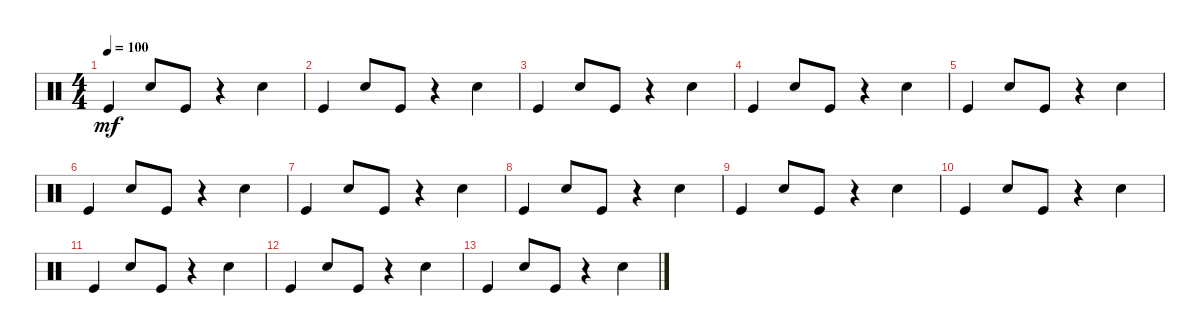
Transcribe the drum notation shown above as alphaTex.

\track "" {instrument percussion}
\staff {score}
\articulation defaults
\ts (4 4)
\tempo 100
\clef neutral
\ks c "Kick (hit)".4{dy mf} "Snare (hit) 2".8 "Kick (hit)".8
r.4 "Snare (hit) 2".4 |
"Kick (hit)".4 "Snare (hit) 2".8 "Kick (hit)".8 r.4 "Snare (hit) 2".4 |
"Kick (hit)".4 "Snare (hit) 2".8 "Kick (hit)".8 r.4 "Snare (hit) 2".4 |
"Kick (hit)".4 "Snare (hit) 2".8 "Kick (hit)".8 r.4 "Snare (hit) 2".4 |
"Kick (hit)".4 "Snare (hit) 2".8 "Kick (hit)".8 r.4 "Snare (hit) 2".4 |
"Kick (hit)".4 "Snare (hit) 2".8 "Kick (hit)".8 r.4 "Snare (hit) 2".4 |
"Kick (hit)".4 "Snare (hit) 2".8 "Kick (hit)".8 r.4 "Snare (hit) 2".4 |
"Kick (hit)".4 "Snare (hit) 2".8 "Kick (hit)".8 r.4 "Snare (hit) 2".4 |
"Kick (hit)".4 "Snare (hit) 2".8 "Kick (hit)".8 r.4 "Snare (hit) 2".4 |
"Kick (hit)".4 "Snare (hit) 2".8 "Kick (hit)".8 r.4 "Snare (hit) 2".4 |
"Kick (hit)".4 "Snare (hit) 2".8 "Kick (hit)".8 r.4 "Snare (hit) 2".4 |
"Kick (hit)".4 "Snare (hit) 2".8 "Kick (hit)".8 r.4 "Snare (hit) 2".4 |
"Kick (hit)".4 "Snare (hit) 2".8 "Kick (hit)".8 r.4 "Snare (hit) 2".4
